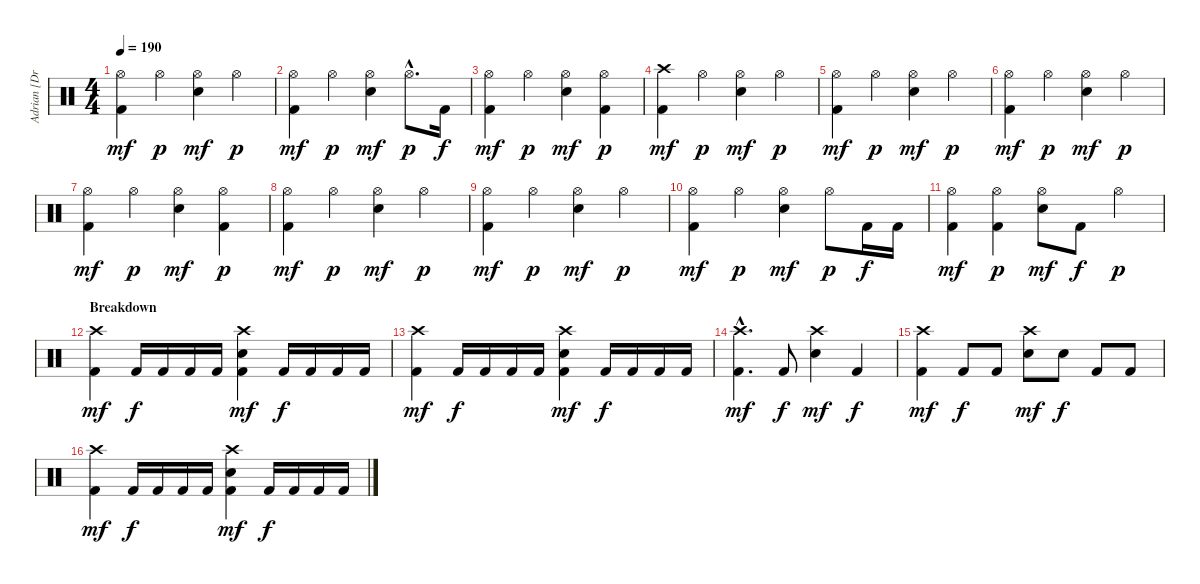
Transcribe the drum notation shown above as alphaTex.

\track ("Adrian [Drums]" "Adrian [Dr") {instrument percussion}
\staff {score}
\articulation defaults
\ts (4 4)
\tempo 190
\clef neutral
\ks c
("Hi-Hat (open)" "Kick (hit) 2").4{dy mf} "Hi-Hat (open)".4{dy p} ("Hi-Hat (open)" "Electric Snare (hit)").4{dy mf} "Hi-Hat (open)".4{dy p} |
("Hi-Hat (open)" "Kick (hit) 2").4{dy mf} "Hi-Hat (open)".4{dy p} ("Hi-Hat (open)" "Electric Snare (hit)").4{dy mf} "Hi-Hat (open)"{hac}.8{d dy p} "Kick (hit) 2".16{dy f} |
("Hi-Hat (open)" "Kick (hit) 2").4{dy mf} "Hi-Hat (open)".4{dy p} ("Hi-Hat (open)" "Electric Snare (hit)").4{dy mf} ("Hi-Hat (open)" "Kick (hit) 2").4{dy p} |
("Crash high (hit)" "Kick (hit) 2").4{dy mf} "Hi-Hat (open)".4{dy p} ("Hi-Hat (open)" "Electric Snare (hit)").4{dy mf} "Hi-Hat (open)".4{dy p} |
("Hi-Hat (open)" "Kick (hit) 2").4{dy mf} "Hi-Hat (open)".4{dy p} ("Hi-Hat (open)" "Electric Snare (hit)").4{dy mf} "Hi-Hat (open)".4{dy p} |
("Hi-Hat (open)" "Kick (hit) 2").4{dy mf} "Hi-Hat (open)".4{dy p} ("Hi-Hat (open)" "Electric Snare (hit)").4{dy mf} "Hi-Hat (open)".4{dy p} |
("Hi-Hat (open)" "Kick (hit) 2").4{dy mf} "Hi-Hat (open)".4{dy p} ("Hi-Hat (open)" "Electric Snare (hit)").4{dy mf} ("Hi-Hat (open)" "Kick (hit) 2").4{dy p} |
("Hi-Hat (open)" "Kick (hit) 2").4{dy mf} "Hi-Hat (open)".4{dy p} ("Hi-Hat (open)" "Electric Snare (hit)").4{dy mf} "Hi-Hat (open)".4{dy p} |
("Hi-Hat (open)" "Kick (hit) 2").4{dy mf} "Hi-Hat (open)".4{dy p} ("Hi-Hat (open)" "Electric Snare (hit)").4{dy mf} "Hi-Hat (open)".4{dy p} |
("Hi-Hat (open)" "Kick (hit) 2").4{dy mf} "Hi-Hat (open)".4{dy p} ("Hi-Hat (open)" "Electric Snare (hit)").4{dy mf} "Hi-Hat (open)".8{dy p} "Kick (hit) 2".16{dy f} "Kick (hit) 2".16 |
("Hi-Hat (open)" "Kick (hit) 2").4{dy mf} ("Hi-Hat (open)" "Kick (hit) 2").4{dy p} ("Hi-Hat (open)" "Electric Snare (hit)").8{dy mf} "Kick (hit) 2".8{dy f} "Hi-Hat (open)".4{dy p} |
\section ("" "Breakdown")
("Crash high (hit)" "Kick (hit) 2").4{dy mf} "Kick (hit) 2".16{dy f} "Kick (hit) 2".16 "Kick (hit) 2".16 "Kick (hit) 2".16 ("Crash high (hit)" "Electric Snare (hit)" "Kick (hit) 2").4{dy mf} "Kick (hit) 2".16{dy f} "Kick (hit) 2".16 "Kick (hit) 2".16 "Kick (hit) 2".16 |
("Crash high (hit)" "Kick (hit) 2").4{dy mf} "Kick (hit) 2".16{dy f} "Kick (hit) 2".16 "Kick (hit) 2".16 "Kick (hit) 2".16 ("Crash high (hit)" "Electric Snare (hit)" "Kick (hit) 2").4{dy mf} "Kick (hit) 2".16{dy f} "Kick (hit) 2".16 "Kick (hit) 2".16 "Kick (hit) 2".16 |
("Crash high (hit)"{hac} "Kick (hit) 2"{hac}).4{d dy mf} "Kick (hit) 2".8{dy f} ("Crash high (hit)" "Electric Snare (hit)").4{dy mf} "Kick (hit) 2".4{dy f} |
("Crash high (hit)" "Kick (hit) 2").4{dy mf} "Kick (hit) 2".8{dy f} "Kick (hit) 2".8 ("Crash high (hit)" "Electric Snare (hit)").8{dy mf} "Electric Snare (hit)".8{dy f} "Kick (hit) 2".8 "Kick (hit) 2".8 |
("Crash high (hit)" "Kick (hit) 2").4{dy mf} "Kick (hit) 2".16{dy f} "Kick (hit) 2".16 "Kick (hit) 2".16 "Kick (hit) 2".16 ("Crash high (hit)" "Electric Snare (hit)" "Kick (hit) 2").4{dy mf} "Kick (hit) 2".16{dy f} "Kick (hit) 2".16 "Kick (hit) 2".16 "Kick (hit) 2".16
